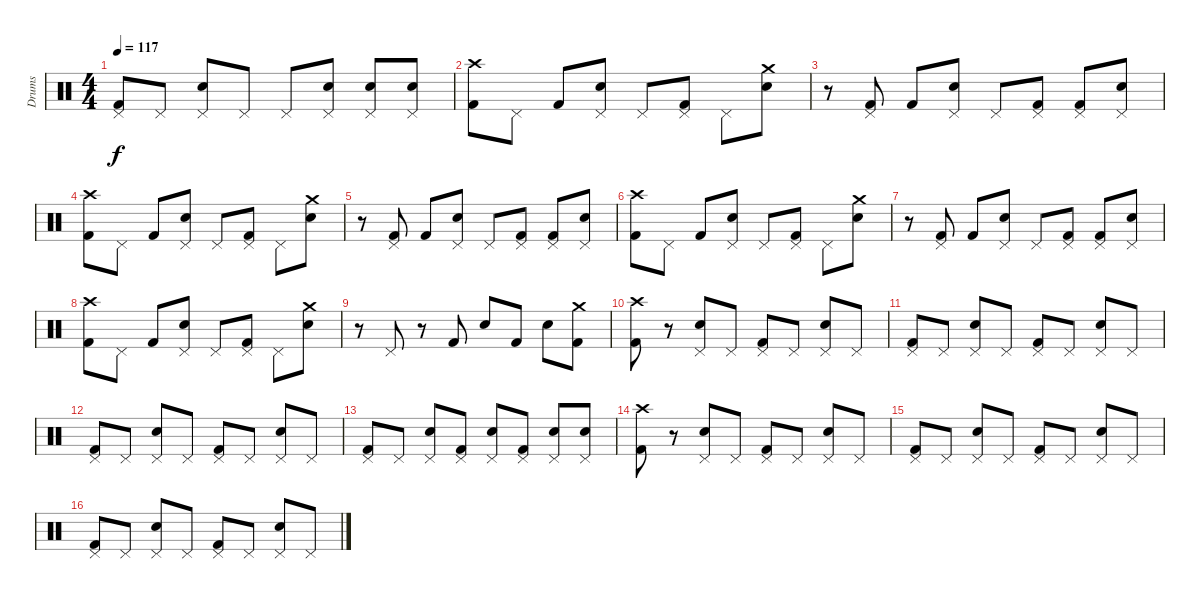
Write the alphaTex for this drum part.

\track ("Drums" "Drums") {instrument percussion}
\staff {score}
\articulation defaults
\ts (4 4)
\tempo 117
\clef neutral
\ks c
("Pedal Hi-Hat (hit)" "Kick (hit) 2").8{dy f} "Pedal Hi-Hat (hit)".8 ("Pedal Hi-Hat (hit)" "Snare (hit) 2").8 "Pedal Hi-Hat (hit)".8 "Pedal Hi-Hat (hit)".8 ("Pedal Hi-Hat (hit)" "Snare (hit) 2").8 ("Pedal Hi-Hat (hit)" "Snare (hit) 2").8 ("Pedal Hi-Hat (hit)" "Snare (hit) 2").8 |
("Crash high (hit)" "Kick (hit) 2").8 "Pedal Hi-Hat (hit)".8 "Kick (hit) 2".8 ("Pedal Hi-Hat (hit)" "Snare (hit) 2").8 "Pedal Hi-Hat (hit)".8 ("Pedal Hi-Hat (hit)" "Kick (hit) 2").8 "Pedal Hi-Hat (hit)".8 ("Crash medium (hit)" "Snare (hit) 2").8 |
r.8 ("Pedal Hi-Hat (hit)" "Kick (hit) 2").8 "Kick (hit) 2".8 ("Pedal Hi-Hat (hit)" "Snare (hit) 2").8 "Pedal Hi-Hat (hit)".8 ("Pedal Hi-Hat (hit)" "Kick (hit) 2").8 ("Pedal Hi-Hat (hit)" "Kick (hit) 2").8 ("Pedal Hi-Hat (hit)" "Snare (hit) 2").8 |
("Crash high (hit)" "Kick (hit) 2").8 "Pedal Hi-Hat (hit)".8 "Kick (hit) 2".8 ("Pedal Hi-Hat (hit)" "Snare (hit) 2").8 "Pedal Hi-Hat (hit)".8 ("Pedal Hi-Hat (hit)" "Kick (hit) 2").8 "Pedal Hi-Hat (hit)".8 ("Crash medium (hit)" "Snare (hit) 2").8 |
r.8 ("Pedal Hi-Hat (hit)" "Kick (hit) 2").8 "Kick (hit) 2".8 ("Pedal Hi-Hat (hit)" "Snare (hit) 2").8 "Pedal Hi-Hat (hit)".8 ("Pedal Hi-Hat (hit)" "Kick (hit) 2").8 ("Pedal Hi-Hat (hit)" "Kick (hit) 2").8 ("Pedal Hi-Hat (hit)" "Snare (hit) 2").8 |
("Crash high (hit)" "Kick (hit) 2").8 "Pedal Hi-Hat (hit)".8 "Kick (hit) 2".8 ("Pedal Hi-Hat (hit)" "Snare (hit) 2").8 "Pedal Hi-Hat (hit)".8 ("Pedal Hi-Hat (hit)" "Kick (hit) 2").8 "Pedal Hi-Hat (hit)".8 ("Crash medium (hit)" "Snare (hit) 2").8 |
r.8 ("Pedal Hi-Hat (hit)" "Kick (hit) 2").8 "Kick (hit) 2".8 ("Pedal Hi-Hat (hit)" "Snare (hit) 2").8 "Pedal Hi-Hat (hit)".8 ("Pedal Hi-Hat (hit)" "Kick (hit) 2").8 ("Pedal Hi-Hat (hit)" "Kick (hit) 2").8 ("Pedal Hi-Hat (hit)" "Snare (hit) 2").8 |
("Crash high (hit)" "Kick (hit) 2").8 "Pedal Hi-Hat (hit)".8 "Kick (hit) 2".8 ("Pedal Hi-Hat (hit)" "Snare (hit) 2").8 "Pedal Hi-Hat (hit)".8 ("Pedal Hi-Hat (hit)" "Kick (hit) 2").8 "Pedal Hi-Hat (hit)".8 ("Crash medium (hit)" "Snare (hit) 2").8 |
r.8 "Pedal Hi-Hat (hit)".8 r.8 "Kick (hit) 2".8 "Snare (hit) 2".8 "Kick (hit) 2".8 "Snare (hit) 2".8 ("Crash medium (hit)" "Kick (hit) 2").8 |
("Crash high (hit)" "Kick (hit) 2").8 r.8 ("Pedal Hi-Hat (hit)" "Snare (hit) 2").8 "Pedal Hi-Hat (hit)".8 ("Pedal Hi-Hat (hit)" "Kick (hit) 2").8 "Pedal Hi-Hat (hit)".8 ("Pedal Hi-Hat (hit)" "Snare (hit) 2").8 "Pedal Hi-Hat (hit)".8 |
("Pedal Hi-Hat (hit)" "Kick (hit) 2").8 "Pedal Hi-Hat (hit)".8 ("Pedal Hi-Hat (hit)" "Snare (hit) 2").8 "Pedal Hi-Hat (hit)".8 ("Pedal Hi-Hat (hit)" "Kick (hit) 2").8 "Pedal Hi-Hat (hit)".8 ("Pedal Hi-Hat (hit)" "Snare (hit) 2").8 "Pedal Hi-Hat (hit)".8 |
("Pedal Hi-Hat (hit)" "Kick (hit) 2").8 "Pedal Hi-Hat (hit)".8 ("Pedal Hi-Hat (hit)" "Snare (hit) 2").8 "Pedal Hi-Hat (hit)".8 ("Pedal Hi-Hat (hit)" "Kick (hit) 2").8 "Pedal Hi-Hat (hit)".8 ("Pedal Hi-Hat (hit)" "Snare (hit) 2").8 "Pedal Hi-Hat (hit)".8 |
("Pedal Hi-Hat (hit)" "Kick (hit) 2").8 "Pedal Hi-Hat (hit)".8 ("Pedal Hi-Hat (hit)" "Snare (hit) 2").8 ("Pedal Hi-Hat (hit)" "Kick (hit) 2").8 ("Pedal Hi-Hat (hit)" "Snare (hit) 2").8 ("Pedal Hi-Hat (hit)" "Kick (hit) 2").8 ("Pedal Hi-Hat (hit)" "Snare (hit) 2").8 ("Pedal Hi-Hat (hit)" "Snare (hit) 2").8 |
("Crash high (hit)" "Kick (hit) 2").8 r.8 ("Pedal Hi-Hat (hit)" "Snare (hit) 2").8 "Pedal Hi-Hat (hit)".8 ("Pedal Hi-Hat (hit)" "Kick (hit) 2").8 "Pedal Hi-Hat (hit)".8 ("Pedal Hi-Hat (hit)" "Snare (hit) 2").8 "Pedal Hi-Hat (hit)".8 |
("Pedal Hi-Hat (hit)" "Kick (hit) 2").8 "Pedal Hi-Hat (hit)".8 ("Pedal Hi-Hat (hit)" "Snare (hit) 2").8 "Pedal Hi-Hat (hit)".8 ("Pedal Hi-Hat (hit)" "Kick (hit) 2").8 "Pedal Hi-Hat (hit)".8 ("Pedal Hi-Hat (hit)" "Snare (hit) 2").8 "Pedal Hi-Hat (hit)".8 |
("Pedal Hi-Hat (hit)" "Kick (hit) 2").8 "Pedal Hi-Hat (hit)".8 ("Pedal Hi-Hat (hit)" "Snare (hit) 2").8 "Pedal Hi-Hat (hit)".8 ("Pedal Hi-Hat (hit)" "Kick (hit) 2").8 "Pedal Hi-Hat (hit)".8 ("Pedal Hi-Hat (hit)" "Snare (hit) 2").8 "Pedal Hi-Hat (hit)".8
